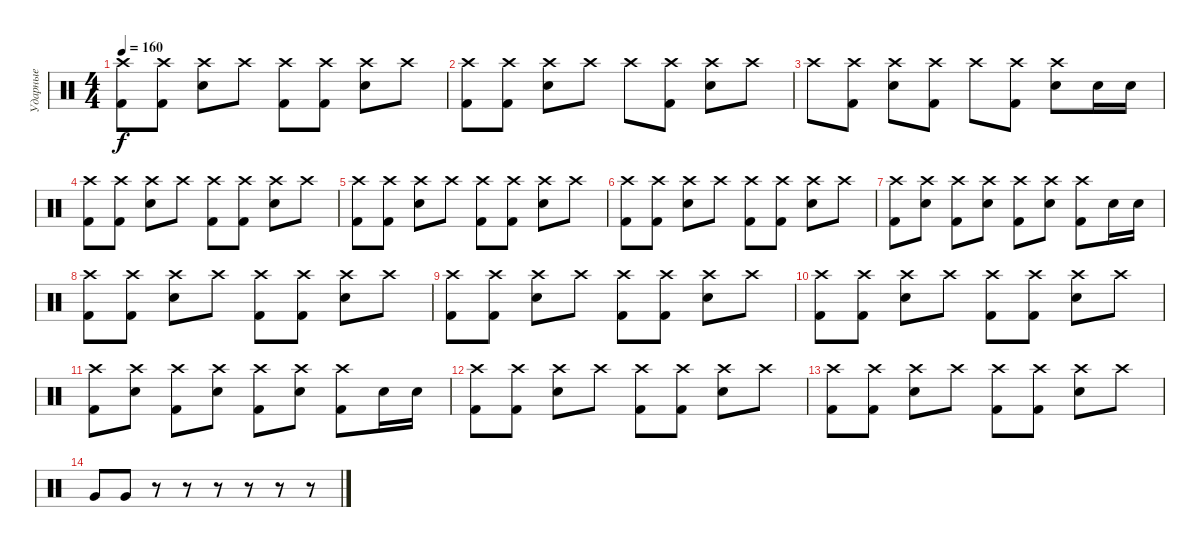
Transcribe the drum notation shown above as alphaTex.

\track ("Ударные" "Ударные") {instrument percussion}
\staff {score}
\articulation defaults
\ts (4 4)
\tempo 160
\clef neutral
\ks c
("Crash high (hit)" "Kick (hit) 2").8{dy f} ("Crash high (hit)" "Kick (hit) 2").8 ("Crash high (hit)" "Snare (hit) 2").8 "Crash high (hit)".8 ("Crash high (hit)" "Kick (hit) 2").8 ("Crash high (hit)" "Kick (hit) 2").8 ("Crash high (hit)" "Snare (hit) 2").8 "Crash high (hit)".8 |
("Crash high (hit)" "Kick (hit) 2").8 ("Crash high (hit)" "Kick (hit) 2").8 ("Crash high (hit)" "Snare (hit) 2").8 "Crash high (hit)".8 "Crash high (hit)".8 ("Crash high (hit)" "Kick (hit) 2").8 ("Crash high (hit)" "Snare (hit) 2").8 "Crash high (hit)".8 |
"Crash high (hit)".8 ("Crash high (hit)" "Kick (hit) 2").8 ("Crash high (hit)" "Snare (hit) 2").8 ("Crash high (hit)" "Kick (hit) 2").8 "Crash high (hit)".8 ("Crash high (hit)" "Kick (hit) 2").8 ("Crash high (hit)" "Snare (hit) 2").8 "Snare (hit) 2".16 "Snare (hit) 2".16 |
("Crash high (hit)" "Kick (hit) 2").8 ("Crash high (hit)" "Kick (hit) 2").8 ("Crash high (hit)" "Snare (hit) 2").8 "Crash high (hit)".8 ("Crash high (hit)" "Kick (hit) 2").8 ("Crash high (hit)" "Kick (hit) 2").8 ("Crash high (hit)" "Snare (hit) 2").8 "Crash high (hit)".8 |
("Crash high (hit)" "Kick (hit) 2").8 ("Crash high (hit)" "Kick (hit) 2").8 ("Crash high (hit)" "Snare (hit) 2").8 "Crash high (hit)".8 ("Crash high (hit)" "Kick (hit) 2").8 ("Crash high (hit)" "Kick (hit) 2").8 ("Crash high (hit)" "Snare (hit) 2").8 "Crash high (hit)".8 |
("Crash high (hit)" "Kick (hit) 2").8 ("Crash high (hit)" "Kick (hit) 2").8 ("Crash high (hit)" "Snare (hit) 2").8 "Crash high (hit)".8 ("Crash high (hit)" "Kick (hit) 2").8 ("Crash high (hit)" "Kick (hit) 2").8 ("Crash high (hit)" "Snare (hit) 2").8 "Crash high (hit)".8 |
("Crash high (hit)" "Kick (hit) 2").8 ("Crash high (hit)" "Snare (hit) 2").8 ("Crash high (hit)" "Kick (hit) 2").8 ("Crash high (hit)" "Snare (hit) 2").8 ("Crash high (hit)" "Kick (hit) 2").8 ("Crash high (hit)" "Snare (hit) 2").8 ("Crash high (hit)" "Kick (hit) 2").8 "Snare (hit) 2".16 "Snare (hit) 2".16 |
("Crash high (hit)" "Kick (hit) 2").8 ("Crash high (hit)" "Kick (hit) 2").8 ("Crash high (hit)" "Snare (hit) 2").8 "Crash high (hit)".8 ("Crash high (hit)" "Kick (hit) 2").8 ("Crash high (hit)" "Kick (hit) 2").8 ("Crash high (hit)" "Snare (hit) 2").8 "Crash high (hit)".8 |
("Crash high (hit)" "Kick (hit) 2").8 ("Crash high (hit)" "Kick (hit) 2").8 ("Crash high (hit)" "Snare (hit) 2").8 "Crash high (hit)".8 ("Crash high (hit)" "Kick (hit) 2").8 ("Crash high (hit)" "Kick (hit) 2").8 ("Crash high (hit)" "Snare (hit) 2").8 "Crash high (hit)".8 |
("Crash high (hit)" "Kick (hit) 2").8 ("Crash high (hit)" "Kick (hit) 2").8 ("Crash high (hit)" "Snare (hit) 2").8 "Crash high (hit)".8 ("Crash high (hit)" "Kick (hit) 2").8 ("Crash high (hit)" "Kick (hit) 2").8 ("Crash high (hit)" "Snare (hit) 2").8 "Crash high (hit)".8 |
("Crash high (hit)" "Kick (hit) 2").8 ("Crash high (hit)" "Snare (hit) 2").8 ("Crash high (hit)" "Kick (hit) 2").8 ("Crash high (hit)" "Snare (hit) 2").8 ("Crash high (hit)" "Kick (hit) 2").8 ("Crash high (hit)" "Snare (hit) 2").8 ("Crash high (hit)" "Kick (hit) 2").8 "Snare (hit) 2".16 "Snare (hit) 2".16 |
("Crash high (hit)" "Kick (hit) 2").8 ("Crash high (hit)" "Kick (hit) 2").8 ("Crash high (hit)" "Snare (hit) 2").8 "Crash high (hit)".8 ("Crash high (hit)" "Kick (hit) 2").8 ("Crash high (hit)" "Kick (hit) 2").8 ("Crash high (hit)" "Snare (hit) 2").8 "Crash high (hit)".8 |
("Crash high (hit)" "Kick (hit) 2").8 ("Crash high (hit)" "Kick (hit) 2").8 ("Crash high (hit)" "Snare (hit) 2").8 "Crash high (hit)".8 ("Crash high (hit)" "Kick (hit) 2").8 ("Crash high (hit)" "Kick (hit) 2").8 ("Crash high (hit)" "Snare (hit) 2").8 "Crash high (hit)".8 |
"Very Low Tom (hit)".8 "Very Low Tom (hit)".8 r.8 r.8 r.8 r.8 r.8 r.8
